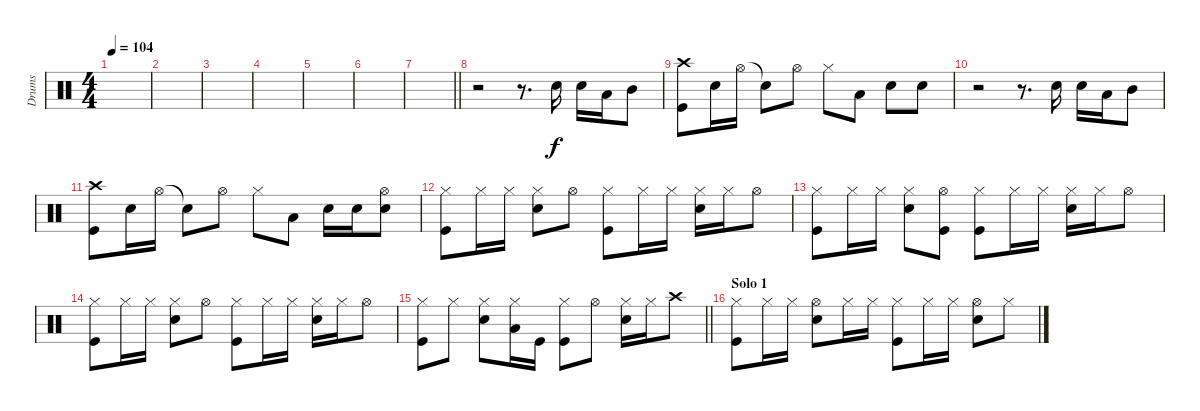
\track ("Drums" "Drums") {instrument percussion}
\staff {score}
\articulation defaults
\ts (4 4)
\tempo 104
\clef neutral
\ks c
|
|
|
|
|
|
\barLineRight lightlight
|
r.2 r.8{d} "Snare (hit) 2".16{dy f} "Snare (hit) 2".16 "Low Tom (hit)".16 "Mid Tom (hit)".8 |
("Crash high (hit)" "Kick (hit)").8 "Snare (hit) 2".16 "Hi-Hat (open)".16 "Snare (hit)"{t}.8 "Hi-Hat (open)".8 "Hi-Hat (closed)".8 "Low Floor Tom (hit)".8 "Snare (hit) 2".8 "Snare (hit) 2".8 |
r.2 r.8{d} "Snare (hit) 2".16 "Snare (hit) 2".16 "Low Tom (hit)".16 "Mid Tom (hit)".8 |
("Crash high (hit)" "Kick (hit)").8 "Snare (hit) 2".16 "Hi-Hat (open)".16 "Snare (hit)"{t}.8 "Hi-Hat (open)".8 "Hi-Hat (closed)".8 "Low Floor Tom (hit)".8 "Snare (hit) 2".16 "Snare (hit) 2".16 ("Hi-Hat (open)" "Snare (hit) 2").8 |
("Hi-Hat (closed)" "Kick (hit)").8 "Hi-Hat (closed)".16 "Hi-Hat (closed)".16 ("Hi-Hat (closed)" "Snare (hit) 2").8 "Hi-Hat (open)".8 ("Hi-Hat (closed)" "Kick (hit)").8 "Hi-Hat (closed)".16 "Hi-Hat (closed)".16 ("Hi-Hat (closed)" "Snare (hit) 2").16 "Hi-Hat (closed)".16 "Hi-Hat (open)".8 |
("Hi-Hat (closed)" "Kick (hit)").8 "Hi-Hat (closed)".16 "Hi-Hat (closed)".16 ("Hi-Hat (closed)" "Snare (hit) 2").8 ("Hi-Hat (open)" "Kick (hit)").8 ("Hi-Hat (closed)" "Kick (hit)").8 "Hi-Hat (closed)".16 "Hi-Hat (closed)".16 ("Hi-Hat (closed)" "Snare (hit) 2").16 "Hi-Hat (closed)".16 "Hi-Hat (open)".8 |
("Hi-Hat (closed)" "Kick (hit)").8 "Hi-Hat (closed)".16 "Hi-Hat (closed)".16 ("Hi-Hat (closed)" "Snare (hit) 2").8 "Hi-Hat (open)".8 ("Hi-Hat (closed)" "Kick (hit)").8 "Hi-Hat (closed)".16 "Hi-Hat (closed)".16 ("Hi-Hat (closed)" "Snare (hit) 2").16 "Hi-Hat (closed)".16 "Hi-Hat (open)".8 |
\barLineRight lightlight
("Hi-Hat (closed)" "Kick (hit)").8 "Hi-Hat (closed)".8 ("Hi-Hat (closed)" "Snare (hit) 2").8 ("Hi-Hat (closed)" "Low Floor Tom (hit)").16 "Kick (hit)".16 ("Hi-Hat (closed)" "Kick (hit)").8 "Hi-Hat (open)".8 ("Hi-Hat (closed)" "Snare (hit) 2").16 "Hi-Hat (closed)".16 "Crash high (hit)".8 |
\section ("" "Solo 1")
("Hi-Hat (closed)" "Kick (hit)").8 "Hi-Hat (closed)".16 "Hi-Hat (closed)".16 ("Hi-Hat (open)" "Snare (hit) 2").8 "Hi-Hat (closed)".16 "Hi-Hat (closed)".16 ("Hi-Hat (closed)" "Kick (hit)").8 "Hi-Hat (closed)".16 "Hi-Hat (closed)".16 ("Hi-Hat (open)" "Snare (hit) 2").8 "Hi-Hat (closed)".8
